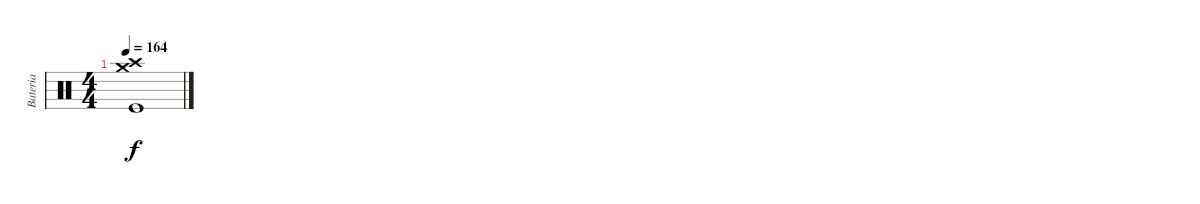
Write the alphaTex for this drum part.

\track ("Bateria" "Bateria") {instrument percussion}
\staff {score}
\articulation defaults
\ts (4 4)
\tempo 164
\clef neutral
\ks c
("Crash medium (hit)" "Crash high (hit)" "Kick (hit)").1{dy f}
